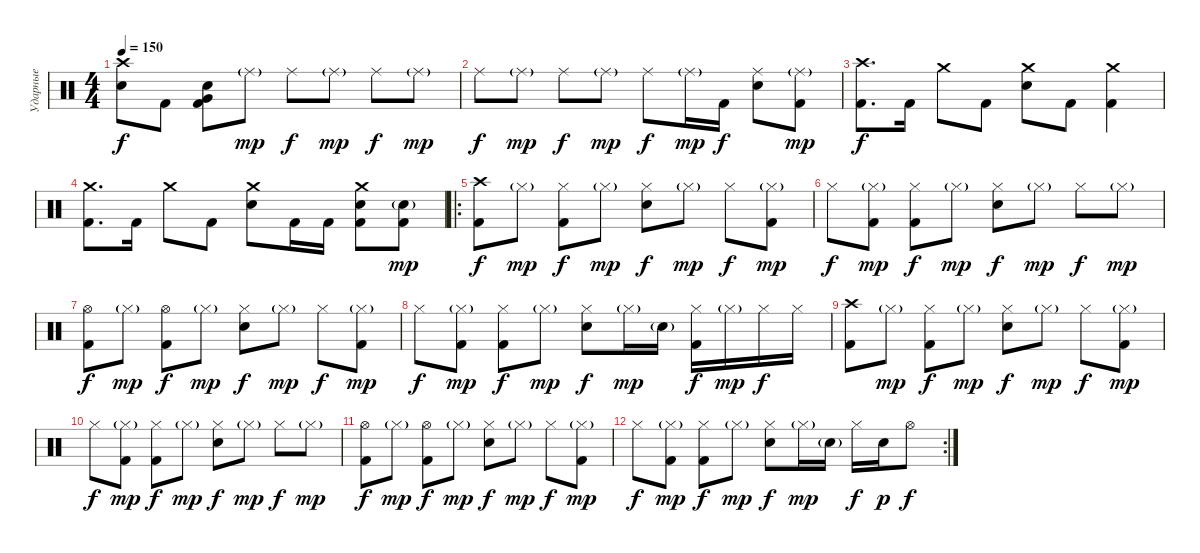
\track ("Ударные" "Ударные") {instrument percussion}
\staff {score}
\articulation defaults
\ts (4 4)
\tempo 150
\clef neutral
\ks c
("Crash high (hit)" "Electric Snare (hit)").8{dy f} "Kick (hit) 2".8 ("Very Low Tom (hit)" "Electric Snare (hit)" "Kick (hit) 2").8 "Ride (middle)"{g}.8{dy mp} "Ride (middle)".8{dy f} "Ride (middle)"{g}.8{dy mp} "Ride (middle)".8{dy f} "Ride (middle)"{g}.8{dy mp} |
"Ride (middle)".8{dy f} "Ride (middle)"{g}.8{dy mp} "Ride (middle)".8{dy f} "Ride (middle)"{g}.8{dy mp} "Ride (middle)".8{dy f} "Ride (middle)"{g}.16{dy mp} "Kick (hit) 2".16{dy f} ("Ride (middle)" "Electric Snare (hit)").8 ("Ride (middle)"{g} "Kick (hit) 2").8{dy mp} |
("Crash high (hit)" "Kick (hit) 2").8{d dy f} "Kick (hit) 2".16 "Crash medium (hit)".8 "Kick (hit) 2".8 ("Crash medium (hit)" "Electric Snare (hit)").8 "Kick (hit) 2".8 ("Crash medium (hit)" "Kick (hit) 2").4 |
("Crash medium (hit)" "Kick (hit) 2").8{d} "Kick (hit) 2".16 "Crash medium (hit)".8 "Kick (hit) 2".8 ("Crash medium (hit)" "Electric Snare (hit)").8 "Kick (hit) 2".16 "Kick (hit) 2".16 ("Crash medium (hit)" "Electric Snare (hit)" "Kick (hit) 2").8 ("Electric Snare (hit)"{g} "Kick (hit) 2").8{dy mp} |
\ro
("Crash high (hit)" "Kick (hit) 2").8{dy f} "Hi-Hat (closed)"{g}.8{dy mp} ("Hi-Hat (closed)" "Kick (hit) 2").8{dy f} "Hi-Hat (closed)"{g}.8{dy mp} ("Hi-Hat (closed)" "Electric Snare (hit)").8{dy f} "Hi-Hat (closed)"{g}.8{dy mp} "Hi-Hat (closed)".8{dy f} ("Hi-Hat (closed)"{g} "Kick (hit) 2").8{dy mp} |
"Hi-Hat (closed)".8{dy f} ("Hi-Hat (closed)"{g} "Kick (hit) 2").8{dy mp} ("Hi-Hat (closed)" "Kick (hit) 2").8{dy f} "Hi-Hat (closed)"{g}.8{dy mp} ("Hi-Hat (closed)" "Electric Snare (hit)").8{dy f} "Hi-Hat (closed)"{g}.8{dy mp} "Hi-Hat (closed)".8{dy f} "Hi-Hat (closed)"{g}.8{dy mp} |
("Hi-Hat (open)" "Kick (hit) 2").8{dy f} "Hi-Hat (closed)"{g}.8{dy mp} ("Hi-Hat (open)" "Kick (hit) 2").8{dy f} "Hi-Hat (closed)"{g}.8{dy mp} ("Hi-Hat (closed)" "Electric Snare (hit)").8{dy f} "Hi-Hat (closed)"{g}.8{dy mp} "Hi-Hat (closed)".8{dy f} ("Hi-Hat (closed)"{g} "Kick (hit) 2").8{dy mp} |
"Hi-Hat (closed)".8{dy f} ("Hi-Hat (closed)"{g} "Kick (hit) 2").8{dy mp} ("Hi-Hat (closed)" "Kick (hit) 2").8{dy f} "Hi-Hat (closed)"{g}.8{dy mp} ("Hi-Hat (closed)" "Electric Snare (hit)").8{dy f} "Hi-Hat (closed)"{g}.16{dy mp} "Electric Snare (hit)"{g}.16 ("Hi-Hat (closed)" "Kick (hit) 2").16{dy f} "Hi-Hat (closed)"{g}.16{dy mp} "Hi-Hat (closed)".16{dy f} "Hi-Hat (closed)".16 |
("Crash high (hit)" "Kick (hit) 2").8 "Hi-Hat (closed)"{g}.8{dy mp} ("Hi-Hat (closed)" "Kick (hit) 2").8{dy f} "Hi-Hat (closed)"{g}.8{dy mp} ("Hi-Hat (closed)" "Electric Snare (hit)").8{dy f} "Hi-Hat (closed)"{g}.8{dy mp} "Hi-Hat (closed)".8{dy f} ("Hi-Hat (closed)"{g} "Kick (hit) 2").8{dy mp} |
"Hi-Hat (closed)".8{dy f} ("Hi-Hat (closed)"{g} "Kick (hit) 2").8{dy mp} ("Hi-Hat (closed)" "Kick (hit) 2").8{dy f} "Hi-Hat (closed)"{g}.8{dy mp} ("Hi-Hat (closed)" "Electric Snare (hit)").8{dy f} "Hi-Hat (closed)"{g}.8{dy mp} "Hi-Hat (closed)".8{dy f} "Hi-Hat (closed)"{g}.8{dy mp} |
("Hi-Hat (open)" "Kick (hit) 2").8{dy f} "Hi-Hat (closed)"{g}.8{dy mp} ("Hi-Hat (open)" "Kick (hit) 2").8{dy f} "Hi-Hat (closed)"{g}.8{dy mp} ("Hi-Hat (closed)" "Electric Snare (hit)").8{dy f} "Hi-Hat (closed)"{g}.8{dy mp} "Hi-Hat (closed)".8{dy f} ("Hi-Hat (closed)"{g} "Kick (hit) 2").8{dy mp} |
\rc 2 "Hi-Hat (closed)".8{dy f}
("Hi-Hat (closed)"{g} "Kick (hit) 2").8{dy mp} ("Hi-Hat (closed)" "Kick (hit) 2").8{dy f} "Hi-Hat (closed)"{g}.8{dy mp} ("Hi-Hat (closed)" "Electric Snare (hit)").8{dy f} "Hi-Hat (closed)"{g}.16{dy mp} "Electric Snare (hit)"{g}.16 "Hi-Hat (closed)".16{dy f} "Electric Snare (hit)".16{dy p} "Hi-Hat (open)".8{dy f}
